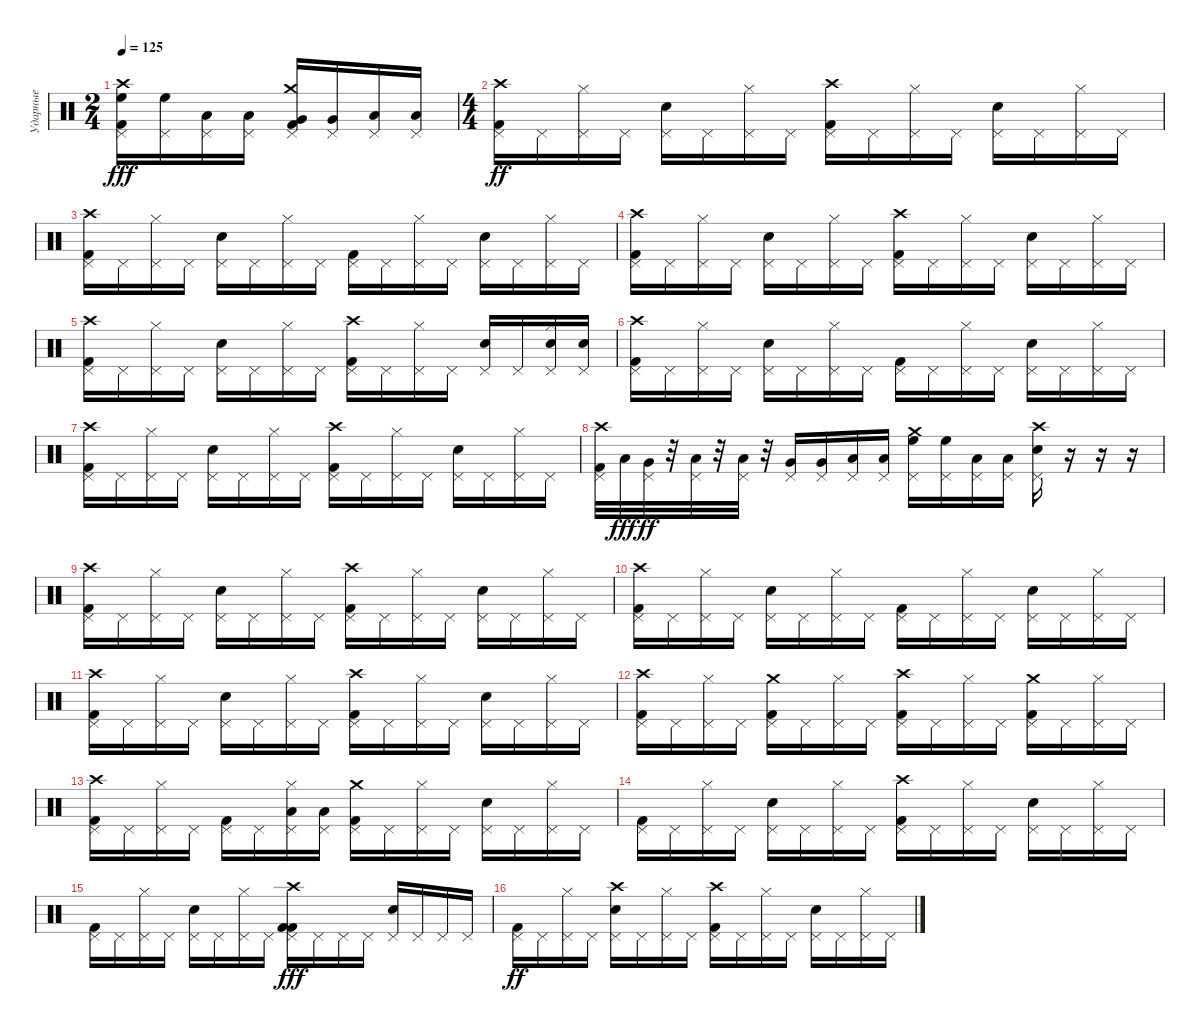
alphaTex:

\track ("Ударные" "Ударные") {instrument percussion}
\staff {score}
\articulation defaults
\ts (2 4)
\tempo 125
\clef neutral
\ks c
("Crash high (hit)" "High Floor Tom (hit)" "Pedal Hi-Hat (hit)" "Kick (hit) 2").16{dy fff} ("High Floor Tom (hit)" "Pedal Hi-Hat (hit)").16 ("Low Tom (hit)" "Pedal Hi-Hat (hit)").16 ("Low Tom (hit)" "Pedal Hi-Hat (hit)").16 ("Crash medium (hit)" "Very Low Tom (hit)" "Pedal Hi-Hat (hit)" "Kick (hit) 2").16 ("Very Low Tom (hit)" "Pedal Hi-Hat (hit)").16 ("Low Floor Tom (hit)" "Pedal Hi-Hat (hit)").16 ("Low Floor Tom (hit)" "Pedal Hi-Hat (hit)").16 |
\ts (4 4)
("Crash high (hit)" "Kick (hit) 2" "Pedal Hi-Hat (hit)").16{dy ff} "Pedal Hi-Hat (hit)".16 ("Hi-Hat (closed)" "Pedal Hi-Hat (hit)").16 "Pedal Hi-Hat (hit)".16 ("Snare (hit) 2" "Pedal Hi-Hat (hit)").16 "Pedal Hi-Hat (hit)".16 ("Hi-Hat (closed)" "Pedal Hi-Hat (hit)").16 "Pedal Hi-Hat (hit)".16 ("Crash high (hit)" "Kick (hit) 2" "Pedal Hi-Hat (hit)").16 "Pedal Hi-Hat (hit)".16 ("Hi-Hat (closed)" "Pedal Hi-Hat (hit)").16 "Pedal Hi-Hat (hit)".16 ("Snare (hit) 2" "Pedal Hi-Hat (hit)").16 "Pedal Hi-Hat (hit)".16 ("Hi-Hat (closed)" "Pedal Hi-Hat (hit)").16 "Pedal Hi-Hat (hit)".16 |
("Crash high (hit)" "Kick (hit) 2" "Pedal Hi-Hat (hit)").16 "Pedal Hi-Hat (hit)".16 ("Hi-Hat (closed)" "Pedal Hi-Hat (hit)").16 "Pedal Hi-Hat (hit)".16 ("Snare (hit) 2" "Pedal Hi-Hat (hit)").16 "Pedal Hi-Hat (hit)".16 ("Hi-Hat (closed)" "Pedal Hi-Hat (hit)").16 "Pedal Hi-Hat (hit)".16 ("Kick (hit) 2" "Pedal Hi-Hat (hit)").16 "Pedal Hi-Hat (hit)".16 ("Hi-Hat (closed)" "Pedal Hi-Hat (hit)").16 "Pedal Hi-Hat (hit)".16 ("Snare (hit) 2" "Pedal Hi-Hat (hit)").16 "Pedal Hi-Hat (hit)".16 ("Hi-Hat (closed)" "Pedal Hi-Hat (hit)").16 "Pedal Hi-Hat (hit)".16 |
("Crash high (hit)" "Kick (hit) 2" "Pedal Hi-Hat (hit)").16 "Pedal Hi-Hat (hit)".16 ("Hi-Hat (closed)" "Pedal Hi-Hat (hit)").16 "Pedal Hi-Hat (hit)".16 ("Snare (hit) 2" "Pedal Hi-Hat (hit)").16 "Pedal Hi-Hat (hit)".16 ("Hi-Hat (closed)" "Pedal Hi-Hat (hit)").16 "Pedal Hi-Hat (hit)".16 ("Crash high (hit)" "Kick (hit) 2" "Pedal Hi-Hat (hit)").16 "Pedal Hi-Hat (hit)".16 ("Hi-Hat (closed)" "Pedal Hi-Hat (hit)").16 "Pedal Hi-Hat (hit)".16 ("Snare (hit) 2" "Pedal Hi-Hat (hit)").16 "Pedal Hi-Hat (hit)".16 ("Hi-Hat (closed)" "Pedal Hi-Hat (hit)").16 "Pedal Hi-Hat (hit)".16 |
("Crash high (hit)" "Kick (hit) 2" "Pedal Hi-Hat (hit)").16 "Pedal Hi-Hat (hit)".16 ("Hi-Hat (closed)" "Pedal Hi-Hat (hit)").16 "Pedal Hi-Hat (hit)".16 ("Snare (hit) 2" "Pedal Hi-Hat (hit)").16 "Pedal Hi-Hat (hit)".16 ("Hi-Hat (closed)" "Pedal Hi-Hat (hit)").16 "Pedal Hi-Hat (hit)".16 ("Crash high (hit)" "Kick (hit) 2" "Pedal Hi-Hat (hit)").16 "Pedal Hi-Hat (hit)".16 ("Hi-Hat (closed)" "Pedal Hi-Hat (hit)").16 "Pedal Hi-Hat (hit)".16 ("Snare (hit) 2" "Pedal Hi-Hat (hit)").16 "Pedal Hi-Hat (hit)".16 ("Hi-Hat (closed)" "Electric Snare (hit)" "Pedal Hi-Hat (hit)").16 ("Electric Snare (hit)" "Pedal Hi-Hat (hit)").16 |
("Crash high (hit)" "Kick (hit) 2" "Pedal Hi-Hat (hit)").16 "Pedal Hi-Hat (hit)".16 ("Hi-Hat (closed)" "Pedal Hi-Hat (hit)").16 "Pedal Hi-Hat (hit)".16 ("Snare (hit) 2" "Pedal Hi-Hat (hit)").16 "Pedal Hi-Hat (hit)".16 ("Hi-Hat (closed)" "Pedal Hi-Hat (hit)").16 "Pedal Hi-Hat (hit)".16 ("Kick (hit) 2" "Pedal Hi-Hat (hit)").16 "Pedal Hi-Hat (hit)".16 ("Hi-Hat (closed)" "Pedal Hi-Hat (hit)").16 "Pedal Hi-Hat (hit)".16 ("Snare (hit) 2" "Pedal Hi-Hat (hit)").16 "Pedal Hi-Hat (hit)".16 ("Hi-Hat (closed)" "Pedal Hi-Hat (hit)").16 "Pedal Hi-Hat (hit)".16 |
("Crash high (hit)" "Kick (hit) 2" "Pedal Hi-Hat (hit)").16 "Pedal Hi-Hat (hit)".16 ("Hi-Hat (closed)" "Pedal Hi-Hat (hit)").16 "Pedal Hi-Hat (hit)".16 ("Snare (hit) 2" "Pedal Hi-Hat (hit)").16 "Pedal Hi-Hat (hit)".16 ("Hi-Hat (closed)" "Pedal Hi-Hat (hit)").16 "Pedal Hi-Hat (hit)".16 ("Crash high (hit)" "Kick (hit) 2" "Pedal Hi-Hat (hit)").16 "Pedal Hi-Hat (hit)".16 ("Hi-Hat (closed)" "Pedal Hi-Hat (hit)").16 "Pedal Hi-Hat (hit)".16 ("Snare (hit) 2" "Pedal Hi-Hat (hit)").16 "Pedal Hi-Hat (hit)".16 ("Hi-Hat (closed)" "Pedal Hi-Hat (hit)").16 "Pedal Hi-Hat (hit)".16 |
("Crash high (hit)" "Kick (hit) 2" "Pedal Hi-Hat (hit)").32 "Low Tom (hit)".32{dy fff} ("Very Low Tom (hit)" "Pedal Hi-Hat (hit)").32{dy ff} r.32 ("Low Floor Tom (hit)" "Pedal Hi-Hat (hit)").32 r.32 ("Low Floor Tom (hit)" "Pedal Hi-Hat (hit)").32 r.32 ("Very Low Tom (hit)" "Pedal Hi-Hat (hit)").16 ("Very Low Tom (hit)" "Pedal Hi-Hat (hit)").16 ("Low Tom (hit)" "Pedal Hi-Hat (hit)").16 ("Low Tom (hit)" "Pedal Hi-Hat (hit)").16 ("Crash medium (hit)" "High Floor Tom (hit)" "Pedal Hi-Hat (hit)").16 ("High Floor Tom (hit)" "Pedal Hi-Hat (hit)").16 ("Low Tom (hit)" "Pedal Hi-Hat (hit)").16 ("Low Tom (hit)" "Pedal Hi-Hat (hit)").16 ("Crash high (hit)" "Snare (hit) 2" "Pedal Hi-Hat (hit)").16 r.16 r.16 r.16 |
("Crash high (hit)" "Kick (hit) 2" "Pedal Hi-Hat (hit)").16 "Pedal Hi-Hat (hit)".16 ("Hi-Hat (closed)" "Pedal Hi-Hat (hit)").16 "Pedal Hi-Hat (hit)".16 ("Snare (hit) 2" "Pedal Hi-Hat (hit)").16 "Pedal Hi-Hat (hit)".16 ("Hi-Hat (closed)" "Pedal Hi-Hat (hit)").16 "Pedal Hi-Hat (hit)".16 ("Crash high (hit)" "Kick (hit) 2" "Pedal Hi-Hat (hit)").16 "Pedal Hi-Hat (hit)".16 ("Hi-Hat (closed)" "Pedal Hi-Hat (hit)").16 "Pedal Hi-Hat (hit)".16 ("Snare (hit) 2" "Pedal Hi-Hat (hit)").16 "Pedal Hi-Hat (hit)".16 ("Hi-Hat (closed)" "Pedal Hi-Hat (hit)").16 "Pedal Hi-Hat (hit)".16 |
("Crash high (hit)" "Kick (hit) 2" "Pedal Hi-Hat (hit)").16 "Pedal Hi-Hat (hit)".16 ("Hi-Hat (closed)" "Pedal Hi-Hat (hit)").16 "Pedal Hi-Hat (hit)".16 ("Snare (hit) 2" "Pedal Hi-Hat (hit)").16 "Pedal Hi-Hat (hit)".16 ("Hi-Hat (closed)" "Pedal Hi-Hat (hit)").16 "Pedal Hi-Hat (hit)".16 ("Kick (hit) 2" "Pedal Hi-Hat (hit)").16 "Pedal Hi-Hat (hit)".16 ("Hi-Hat (closed)" "Pedal Hi-Hat (hit)").16 "Pedal Hi-Hat (hit)".16 ("Snare (hit) 2" "Pedal Hi-Hat (hit)").16 "Pedal Hi-Hat (hit)".16 ("Hi-Hat (closed)" "Pedal Hi-Hat (hit)").16 "Pedal Hi-Hat (hit)".16 |
("Crash high (hit)" "Kick (hit) 2" "Pedal Hi-Hat (hit)").16 "Pedal Hi-Hat (hit)".16 ("Hi-Hat (closed)" "Pedal Hi-Hat (hit)").16 "Pedal Hi-Hat (hit)".16 ("Snare (hit) 2" "Pedal Hi-Hat (hit)").16 "Pedal Hi-Hat (hit)".16 ("Hi-Hat (closed)" "Pedal Hi-Hat (hit)").16 "Pedal Hi-Hat (hit)".16 ("Crash high (hit)" "Kick (hit) 2" "Pedal Hi-Hat (hit)").16 "Pedal Hi-Hat (hit)".16 ("Hi-Hat (closed)" "Pedal Hi-Hat (hit)").16 "Pedal Hi-Hat (hit)".16 ("Snare (hit) 2" "Pedal Hi-Hat (hit)").16 "Pedal Hi-Hat (hit)".16 ("Hi-Hat (closed)" "Pedal Hi-Hat (hit)").16 "Pedal Hi-Hat (hit)".16 |
("Crash high (hit)" "Kick (hit) 2" "Pedal Hi-Hat (hit)").16 "Pedal Hi-Hat (hit)".16 ("Hi-Hat (closed)" "Pedal Hi-Hat (hit)").16 "Pedal Hi-Hat (hit)".16 ("Crash medium (hit)" "Kick (hit) 2" "Pedal Hi-Hat (hit)").16 "Pedal Hi-Hat (hit)".16 ("Hi-Hat (closed)" "Pedal Hi-Hat (hit)").16 "Pedal Hi-Hat (hit)".16 ("Crash high (hit)" "Kick (hit) 2" "Pedal Hi-Hat (hit)").16 "Pedal Hi-Hat (hit)".16 ("Hi-Hat (closed)" "Pedal Hi-Hat (hit)").16 "Pedal Hi-Hat (hit)".16 ("Crash medium (hit)" "Kick (hit) 2" "Pedal Hi-Hat (hit)").16 "Pedal Hi-Hat (hit)".16 ("Hi-Hat (closed)" "Pedal Hi-Hat (hit)").16 "Pedal Hi-Hat (hit)".16 |
("Crash high (hit)" "Kick (hit) 2" "Pedal Hi-Hat (hit)").16 "Pedal Hi-Hat (hit)".16 ("Hi-Hat (closed)" "Pedal Hi-Hat (hit)").16 "Pedal Hi-Hat (hit)".16 ("Kick (hit) 2" "Pedal Hi-Hat (hit)").16 "Pedal Hi-Hat (hit)".16 ("Hi-Hat (closed)" "Low Tom (hit)" "Pedal Hi-Hat (hit)").16 ("Low Tom (hit)" "Pedal Hi-Hat (hit)").16 ("Crash medium (hit)" "Kick (hit) 2" "Pedal Hi-Hat (hit)").16 "Pedal Hi-Hat (hit)".16 ("Hi-Hat (closed)" "Pedal Hi-Hat (hit)").16 "Pedal Hi-Hat (hit)".16 ("Snare (hit) 2" "Pedal Hi-Hat (hit)").16 "Pedal Hi-Hat (hit)".16 ("Hi-Hat (closed)" "Pedal Hi-Hat (hit)").16 "Pedal Hi-Hat (hit)".16 |
("Kick (hit) 2" "Pedal Hi-Hat (hit)").16 "Pedal Hi-Hat (hit)".16 ("Hi-Hat (closed)" "Pedal Hi-Hat (hit)").16 "Pedal Hi-Hat (hit)".16 ("Snare (hit) 2" "Pedal Hi-Hat (hit)").16 "Pedal Hi-Hat (hit)".16 ("Hi-Hat (closed)" "Pedal Hi-Hat (hit)").16 "Pedal Hi-Hat (hit)".16 ("Crash high (hit)" "Kick (hit) 2" "Pedal Hi-Hat (hit)").16 "Pedal Hi-Hat (hit)".16 ("Hi-Hat (closed)" "Pedal Hi-Hat (hit)").16 "Pedal Hi-Hat (hit)".16 ("Snare (hit) 2" "Pedal Hi-Hat (hit)").16 "Pedal Hi-Hat (hit)".16 ("Hi-Hat (closed)" "Pedal Hi-Hat (hit)").16 "Pedal Hi-Hat (hit)".16 |
("Kick (hit) 2" "Pedal Hi-Hat (hit)").16 "Pedal Hi-Hat (hit)".16 ("Hi-Hat (closed)" "Pedal Hi-Hat (hit)").16 "Pedal Hi-Hat (hit)".16 ("Snare (hit) 2" "Pedal Hi-Hat (hit)").16 "Pedal Hi-Hat (hit)".16 ("Hi-Hat (closed)" "Pedal Hi-Hat (hit)").16 "Pedal Hi-Hat (hit)".16 ("Crash high (hit)" "Kick (hit) 2" "Pedal Hi-Hat (hit)" "Kick (hit) 2").16{dy fff} "Pedal Hi-Hat (hit)".16 "Pedal Hi-Hat (hit)".16 "Pedal Hi-Hat (hit)".16 ("Snare (hit) 2" "Pedal Hi-Hat (hit)").16 "Pedal Hi-Hat (hit)".16 "Pedal Hi-Hat (hit)".16 "Pedal Hi-Hat (hit)".16 |
("Kick (hit) 2" "Pedal Hi-Hat (hit)").16{dy ff} "Pedal Hi-Hat (hit)".16 ("Hi-Hat (closed)" "Pedal Hi-Hat (hit)").16 "Pedal Hi-Hat (hit)".16 ("Crash high (hit)" "Snare (hit) 2" "Pedal Hi-Hat (hit)").16 "Pedal Hi-Hat (hit)".16 ("Hi-Hat (closed)" "Pedal Hi-Hat (hit)").16 "Pedal Hi-Hat (hit)".16 ("Crash high (hit)" "Kick (hit) 2" "Pedal Hi-Hat (hit)").16 "Pedal Hi-Hat (hit)".16 ("Hi-Hat (closed)" "Pedal Hi-Hat (hit)").16 "Pedal Hi-Hat (hit)".16 ("Snare (hit) 2" "Pedal Hi-Hat (hit)").16 "Pedal Hi-Hat (hit)".16 ("Hi-Hat (closed)" "Pedal Hi-Hat (hit)").16 "Pedal Hi-Hat (hit)".16
